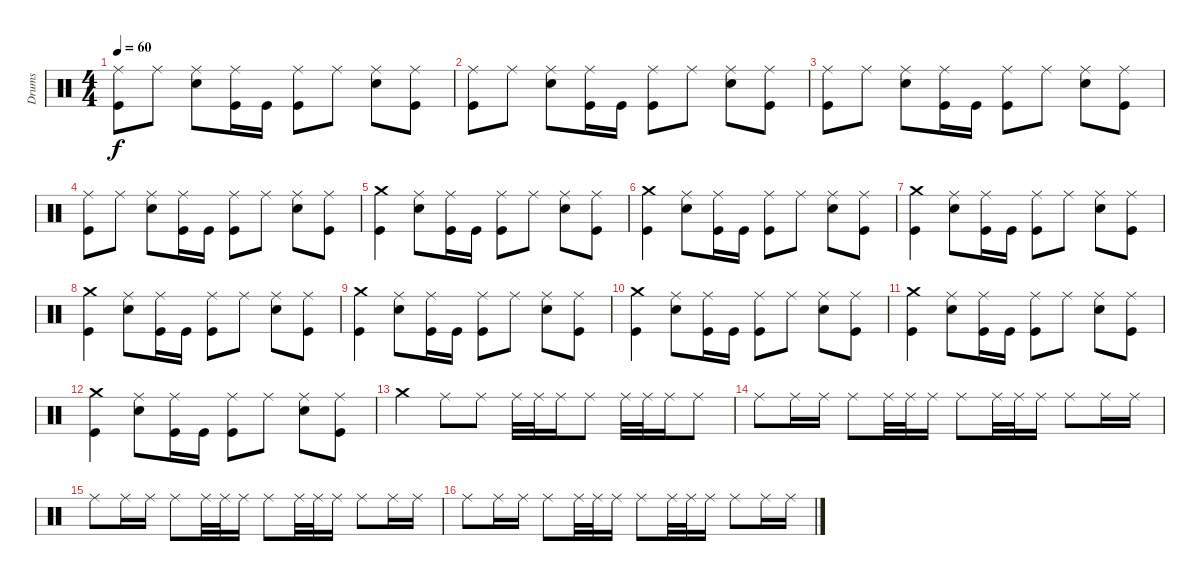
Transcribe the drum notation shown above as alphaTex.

\track ("Drums" "Drums") {instrument percussion}
\staff {score}
\articulation defaults
\ts (4 4)
\tempo 60
\clef neutral
\ks c
("Ride (middle)" "Kick (hit)").8{dy f} "Ride (middle)".8 ("Ride (middle)" "Snare (hit) 2").8 ("Ride (middle)" "Kick (hit)").16 "Kick (hit)".16 ("Ride (middle)" "Kick (hit)").8 "Ride (middle)".8 ("Ride (middle)" "Snare (hit) 2").8 ("Ride (middle)" "Kick (hit)").8 |
("Ride (middle)" "Kick (hit)").8 "Ride (middle)".8 ("Ride (middle)" "Snare (hit) 2").8 ("Ride (middle)" "Kick (hit)").16 "Kick (hit)".16 ("Ride (middle)" "Kick (hit)").8 "Ride (middle)".8 ("Ride (middle)" "Snare (hit) 2").8 ("Ride (middle)" "Kick (hit)").8 |
("Ride (middle)" "Kick (hit)").8 "Ride (middle)".8 ("Ride (middle)" "Snare (hit) 2").8 ("Ride (middle)" "Kick (hit)").16 "Kick (hit)".16 ("Ride (middle)" "Kick (hit)").8 "Ride (middle)".8 ("Ride (middle)" "Snare (hit) 2").8 ("Ride (middle)" "Kick (hit)").8 |
("Ride (middle)" "Kick (hit)").8 "Ride (middle)".8 ("Ride (middle)" "Snare (hit) 2").8 ("Ride (middle)" "Kick (hit)").16 "Kick (hit)".16 ("Ride (middle)" "Kick (hit)").8 "Ride (middle)".8 ("Ride (middle)" "Snare (hit) 2").8 ("Ride (middle)" "Kick (hit)").8 |
("Crash medium (hit)" "Kick (hit)").4 ("Ride (middle)" "Snare (hit) 2").8 ("Ride (middle)" "Kick (hit)").16 "Kick (hit)".16 ("Ride (middle)" "Kick (hit)").8 "Ride (middle)".8 ("Ride (middle)" "Snare (hit) 2").8 ("Ride (middle)" "Kick (hit)").8 |
("Crash medium (hit)" "Kick (hit)").4 ("Ride (middle)" "Snare (hit) 2").8 ("Ride (middle)" "Kick (hit)").16 "Kick (hit)".16 ("Ride (middle)" "Kick (hit)").8 "Ride (middle)".8 ("Ride (middle)" "Snare (hit) 2").8 ("Ride (middle)" "Kick (hit)").8 |
("Crash medium (hit)" "Kick (hit)").4 ("Ride (middle)" "Snare (hit) 2").8 ("Ride (middle)" "Kick (hit)").16 "Kick (hit)".16 ("Ride (middle)" "Kick (hit)").8 "Ride (middle)".8 ("Ride (middle)" "Snare (hit) 2").8 ("Ride (middle)" "Kick (hit)").8 |
("Crash medium (hit)" "Kick (hit)").4 ("Ride (middle)" "Snare (hit) 2").8 ("Ride (middle)" "Kick (hit)").16 "Kick (hit)".16 ("Ride (middle)" "Kick (hit)").8 "Ride (middle)".8 ("Ride (middle)" "Snare (hit) 2").8 ("Ride (middle)" "Kick (hit)").8 |
("Crash medium (hit)" "Kick (hit)").4 ("Ride (middle)" "Snare (hit) 2").8 ("Ride (middle)" "Kick (hit)").16 "Kick (hit)".16 ("Ride (middle)" "Kick (hit)").8 "Ride (middle)".8 ("Ride (middle)" "Snare (hit) 2").8 ("Ride (middle)" "Kick (hit)").8 |
("Crash medium (hit)" "Kick (hit)").4 ("Ride (middle)" "Snare (hit) 2").8 ("Ride (middle)" "Kick (hit)").16 "Kick (hit)".16 ("Ride (middle)" "Kick (hit)").8 "Ride (middle)".8 ("Ride (middle)" "Snare (hit) 2").8 ("Ride (middle)" "Kick (hit)").8 |
("Crash medium (hit)" "Kick (hit)").4 ("Ride (middle)" "Snare (hit) 2").8 ("Ride (middle)" "Kick (hit)").16 "Kick (hit)".16 ("Ride (middle)" "Kick (hit)").8 "Ride (middle)".8 ("Ride (middle)" "Snare (hit) 2").8 ("Ride (middle)" "Kick (hit)").8 |
("Crash medium (hit)" "Kick (hit)").4 ("Ride (middle)" "Snare (hit) 2").8 ("Ride (middle)" "Kick (hit)").16 "Kick (hit)".16 ("Ride (middle)" "Kick (hit)").8 "Ride (middle)".8 ("Ride (middle)" "Snare (hit) 2").8 ("Ride (middle)" "Kick (hit)").8 |
"Crash medium (hit)".4 "Ride (middle)".8 "Ride (middle)".8 "Ride (middle)".32 "Ride (middle)".32 "Ride (middle)".16 "Ride (middle)".8 "Ride (middle)".32 "Ride (middle)".32 "Ride (middle)".16 "Ride (middle)".8 |
"Ride (middle)".8 "Ride (middle)".16 "Ride (middle)".16 "Ride (middle)".8 "Ride (middle)".32 "Ride (middle)".32 "Ride (middle)".16 "Ride (middle)".8 "Ride (middle)".32 "Ride (middle)".32 "Ride (middle)".16 "Ride (middle)".8 "Ride (middle)".16 "Ride (middle)".16 |
"Ride (middle)".8 "Ride (middle)".16 "Ride (middle)".16 "Ride (middle)".8 "Ride (middle)".32 "Ride (middle)".32 "Ride (middle)".16 "Ride (middle)".8 "Ride (middle)".32 "Ride (middle)".32 "Ride (middle)".16 "Ride (middle)".8 "Ride (middle)".16 "Ride (middle)".16 |
"Ride (middle)".8 "Ride (middle)".16 "Ride (middle)".16 "Ride (middle)".8 "Ride (middle)".32 "Ride (middle)".32 "Ride (middle)".16 "Ride (middle)".8 "Ride (middle)".32 "Ride (middle)".32 "Ride (middle)".16 "Ride (middle)".8 "Ride (middle)".16 "Ride (middle)".16
